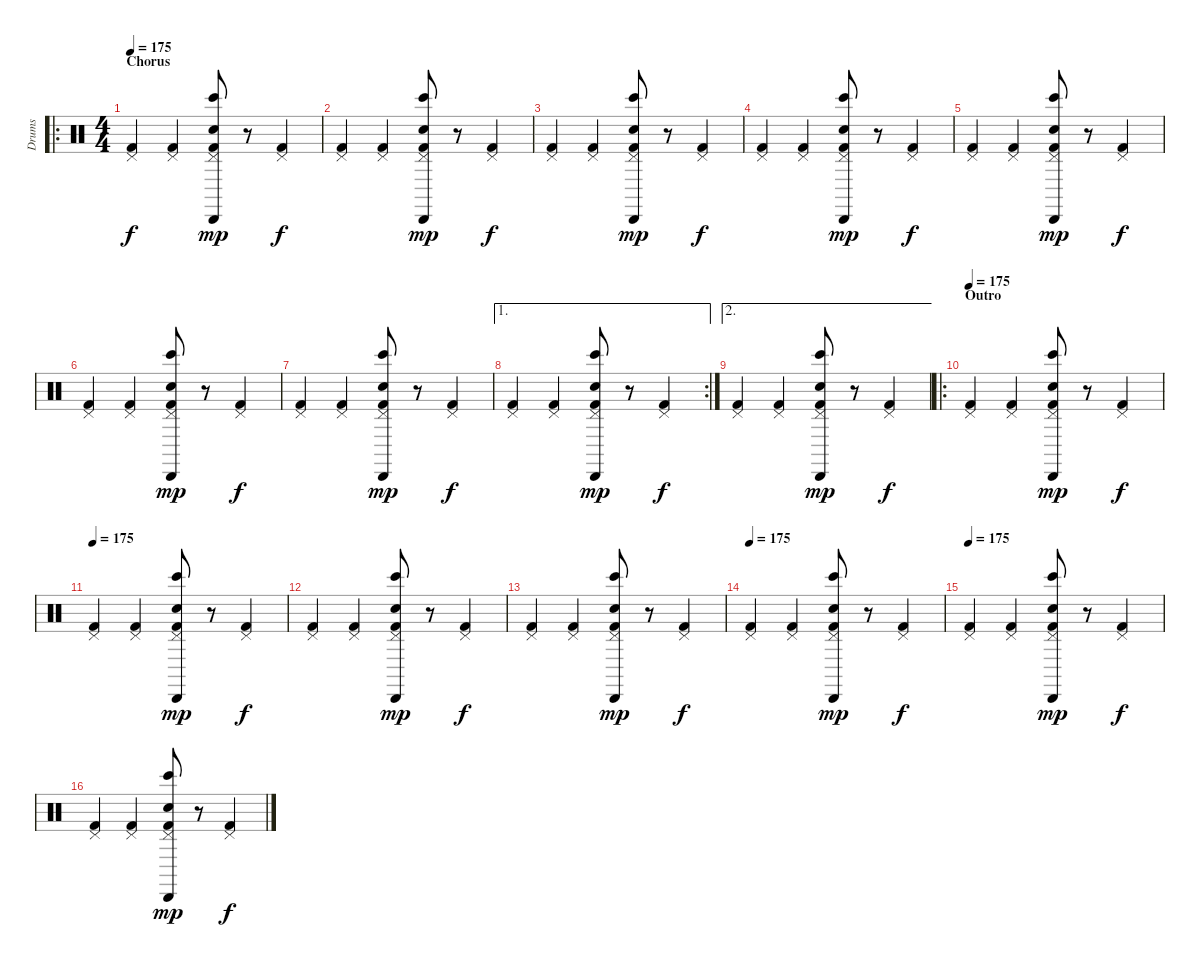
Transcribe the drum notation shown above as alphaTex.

\track ("Drums" "Drums") {instrument percussion}
\staff {score}
\articulation defaults
\ro
\ts (4 4)
\section ("" "Chorus")
\tempo 175
\clef neutral
\ks c
("Pedal Hi-Hat (hit)" "Kick (hit) 2").4{dy f} ("Pedal Hi-Hat (hit)" "Kick (hit) 2").4 ("Cabasa (hit)" "Bongo High (hit)" "Pedal Hi-Hat (hit)" "Snare (hit) 2" "Kick (hit) 2").8{dy mp} r.8{volume 0} ("Pedal Hi-Hat (hit)" "Kick (hit) 2").4{dy f volume 14} |
("Pedal Hi-Hat (hit)" "Kick (hit) 2").4 ("Pedal Hi-Hat (hit)" "Kick (hit) 2").4 ("Cabasa (hit)" "Bongo High (hit)" "Pedal Hi-Hat (hit)" "Snare (hit) 2" "Kick (hit) 2").8{dy mp} r.8{volume 0} ("Pedal Hi-Hat (hit)" "Kick (hit) 2").4{dy f volume 14} |
("Pedal Hi-Hat (hit)" "Kick (hit) 2").4 ("Pedal Hi-Hat (hit)" "Kick (hit) 2").4 ("Cabasa (hit)" "Bongo High (hit)" "Pedal Hi-Hat (hit)" "Snare (hit) 2" "Kick (hit) 2").8{dy mp} r.8{volume 0} ("Pedal Hi-Hat (hit)" "Kick (hit) 2").4{dy f volume 14} |
("Pedal Hi-Hat (hit)" "Kick (hit) 2").4 ("Pedal Hi-Hat (hit)" "Kick (hit) 2").4 ("Cabasa (hit)" "Bongo High (hit)" "Pedal Hi-Hat (hit)" "Snare (hit) 2" "Kick (hit) 2").8{dy mp} r.8{volume 0} ("Pedal Hi-Hat (hit)" "Kick (hit) 2").4{dy f volume 14} |
("Pedal Hi-Hat (hit)" "Kick (hit) 2").4 ("Pedal Hi-Hat (hit)" "Kick (hit) 2").4 ("Cabasa (hit)" "Bongo High (hit)" "Pedal Hi-Hat (hit)" "Snare (hit) 2" "Kick (hit) 2").8{dy mp} r.8{volume 0} ("Pedal Hi-Hat (hit)" "Kick (hit) 2").4{dy f volume 14} |
("Pedal Hi-Hat (hit)" "Kick (hit) 2").4 ("Pedal Hi-Hat (hit)" "Kick (hit) 2").4 ("Cabasa (hit)" "Bongo High (hit)" "Pedal Hi-Hat (hit)" "Snare (hit) 2" "Kick (hit) 2").8{dy mp} r.8{volume 0} ("Pedal Hi-Hat (hit)" "Kick (hit) 2").4{dy f volume 14} |
("Pedal Hi-Hat (hit)" "Kick (hit) 2").4 ("Pedal Hi-Hat (hit)" "Kick (hit) 2").4 ("Cabasa (hit)" "Bongo High (hit)" "Pedal Hi-Hat (hit)" "Snare (hit) 2" "Kick (hit) 2").8{dy mp} r.8{volume 0} ("Pedal Hi-Hat (hit)" "Kick (hit) 2").4{dy f volume 14} |
\ae 1
\rc 2
("Pedal Hi-Hat (hit)" "Kick (hit) 2").4 ("Pedal Hi-Hat (hit)" "Kick (hit) 2").4 ("Cabasa (hit)" "Bongo High (hit)" "Pedal Hi-Hat (hit)" "Snare (hit) 2" "Kick (hit) 2").8{dy mp} r.8{volume 0} ("Pedal Hi-Hat (hit)" "Kick (hit) 2").4{dy f volume 14} |
\ae 2
("Pedal Hi-Hat (hit)" "Kick (hit) 2").4 ("Pedal Hi-Hat (hit)" "Kick (hit) 2").4 ("Cabasa (hit)" "Bongo High (hit)" "Pedal Hi-Hat (hit)" "Snare (hit) 2" "Kick (hit) 2").8{dy mp} r.8{volume 0} ("Pedal Hi-Hat (hit)" "Kick (hit) 2").4{dy f volume 14} |
\ro
\section ("" "Outro")
\tempo 175
("Pedal Hi-Hat (hit)" "Kick (hit) 2").4 ("Pedal Hi-Hat (hit)" "Kick (hit) 2").4 ("Cabasa (hit)" "Bongo High (hit)" "Pedal Hi-Hat (hit)" "Snare (hit) 2" "Kick (hit) 2").8{dy mp} r.8{volume 0} ("Pedal Hi-Hat (hit)" "Kick (hit) 2").4{dy f volume 14} |
\tempo 175
("Pedal Hi-Hat (hit)" "Kick (hit) 2").4 ("Pedal Hi-Hat (hit)" "Kick (hit) 2").4 ("Cabasa (hit)" "Bongo High (hit)" "Pedal Hi-Hat (hit)" "Snare (hit) 2" "Kick (hit) 2").8{dy mp} r.8{volume 0} ("Pedal Hi-Hat (hit)" "Kick (hit) 2").4{dy f volume 14} |
("Pedal Hi-Hat (hit)" "Kick (hit) 2").4 ("Pedal Hi-Hat (hit)" "Kick (hit) 2").4 ("Cabasa (hit)" "Bongo High (hit)" "Pedal Hi-Hat (hit)" "Snare (hit) 2" "Kick (hit) 2").8{dy mp} r.8{volume 0} ("Pedal Hi-Hat (hit)" "Kick (hit) 2").4{dy f volume 14} |
("Pedal Hi-Hat (hit)" "Kick (hit) 2").4 ("Pedal Hi-Hat (hit)" "Kick (hit) 2").4 ("Cabasa (hit)" "Bongo High (hit)" "Pedal Hi-Hat (hit)" "Snare (hit) 2" "Kick (hit) 2").8{dy mp} r.8{volume 0} ("Pedal Hi-Hat (hit)" "Kick (hit) 2").4{dy f volume 14} |
\tempo 175
("Pedal Hi-Hat (hit)" "Kick (hit) 2").4 ("Pedal Hi-Hat (hit)" "Kick (hit) 2").4 ("Cabasa (hit)" "Bongo High (hit)" "Pedal Hi-Hat (hit)" "Snare (hit) 2" "Kick (hit) 2").8{dy mp} r.8{volume 0} ("Pedal Hi-Hat (hit)" "Kick (hit) 2").4{dy f volume 14} |
\tempo 175
("Pedal Hi-Hat (hit)" "Kick (hit) 2").4 ("Pedal Hi-Hat (hit)" "Kick (hit) 2").4 ("Cabasa (hit)" "Bongo High (hit)" "Pedal Hi-Hat (hit)" "Snare (hit) 2" "Kick (hit) 2").8{dy mp} r.8{volume 0} ("Pedal Hi-Hat (hit)" "Kick (hit) 2").4{dy f volume 14} |
("Pedal Hi-Hat (hit)" "Kick (hit) 2").4 ("Pedal Hi-Hat (hit)" "Kick (hit) 2").4 ("Cabasa (hit)" "Bongo High (hit)" "Pedal Hi-Hat (hit)" "Snare (hit) 2" "Kick (hit) 2").8{dy mp} r.8{volume 0} ("Pedal Hi-Hat (hit)" "Kick (hit) 2").4{dy f volume 14}
